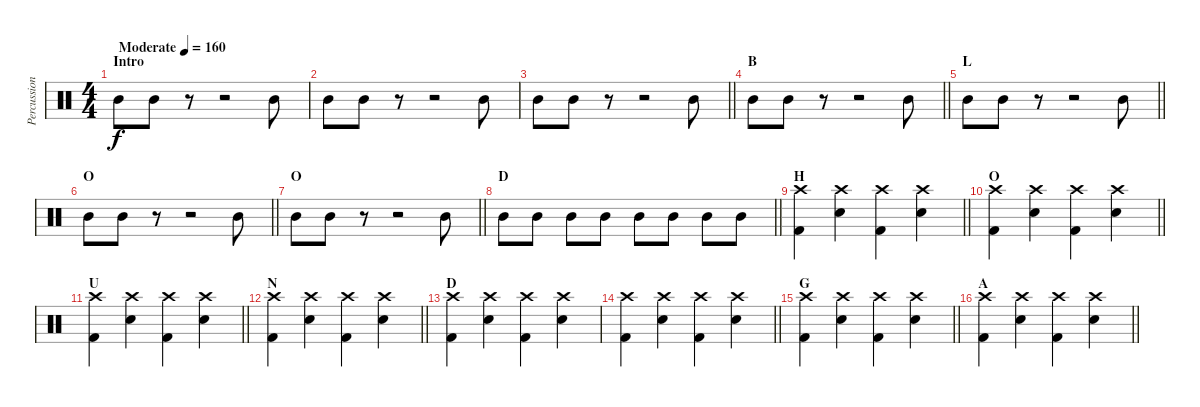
\track ("Percussion" "Percussion") {instrument percussion}
\staff {score}
\articulation defaults
\ts (4 4)
\section ("" "Intro")
\tempo (160 "Moderate")
\clef neutral
\ks c "Mid Tom (hit)".8{dy f} "Mid Tom (hit)".8
r.8 r.2 "Mid Tom (hit)".8 |
"Mid Tom (hit)".8 "Mid Tom (hit)".8 r.8 r.2 "Mid Tom (hit)".8 |
\barLineRight lightlight "Mid Tom (hit)".8 "Mid Tom (hit)".8
r.8 r.2 "Mid Tom (hit)".8 |
\section ("" "B")
\barLineRight lightlight "Mid Tom (hit)".8 "Mid Tom (hit)".8
r.8 r.2 "Mid Tom (hit)".8 |
\section ("" "L")
\barLineRight lightlight "Mid Tom (hit)".8 "Mid Tom (hit)".8
r.8 r.2 "Mid Tom (hit)".8 |
\section ("" "O")
\barLineRight lightlight "Mid Tom (hit)".8 "Mid Tom (hit)".8
r.8 r.2 "Mid Tom (hit)".8 |
\section ("" "O")
\barLineRight lightlight "Mid Tom (hit)".8 "Mid Tom (hit)".8
r.8 r.2 "Mid Tom (hit)".8 |
\section ("" "D")
\barLineRight lightlight "Mid Tom (hit)".8 "Mid Tom (hit)".8 "Mid Tom (hit)".8 "Mid Tom (hit)".8 "Mid Tom (hit)".8 "Mid Tom (hit)".8 "Mid Tom (hit)".8 "Mid Tom (hit)".8
|
\section ("" "H")
\barLineRight lightlight
("Crash high (hit)" "Kick (hit) 2").4 ("Crash high (hit)" "Snare (hit) 2").4 ("Crash high (hit)" "Kick (hit) 2").4 ("Crash high (hit)" "Snare (hit) 2").4 |
\section ("" "O")
\barLineRight lightlight
("Crash high (hit)" "Kick (hit) 2").4 ("Crash high (hit)" "Snare (hit) 2").4 ("Crash high (hit)" "Kick (hit) 2").4 ("Crash high (hit)" "Snare (hit) 2").4 |
\section ("" "U")
\barLineRight lightlight
("Crash high (hit)" "Kick (hit) 2").4 ("Crash high (hit)" "Snare (hit) 2").4 ("Crash high (hit)" "Kick (hit) 2").4 ("Crash high (hit)" "Snare (hit) 2").4 |
\section ("" "N")
\barLineRight lightlight
("Crash high (hit)" "Kick (hit) 2").4 ("Crash high (hit)" "Snare (hit) 2").4 ("Crash high (hit)" "Kick (hit) 2").4 ("Crash high (hit)" "Snare (hit) 2").4 |
\section ("" "D")
("Crash high (hit)" "Kick (hit) 2").4 ("Crash high (hit)" "Snare (hit) 2").4 ("Crash high (hit)" "Kick (hit) 2").4 ("Crash high (hit)" "Snare (hit) 2").4 |
\barLineRight lightlight
("Crash high (hit)" "Kick (hit) 2").4 ("Crash high (hit)" "Snare (hit) 2").4 ("Crash high (hit)" "Kick (hit) 2").4 ("Crash high (hit)" "Snare (hit) 2").4 |
\section ("" "G")
\barLineRight lightlight
("Crash high (hit)" "Kick (hit) 2").4 ("Crash high (hit)" "Snare (hit) 2").4 ("Crash high (hit)" "Kick (hit) 2").4 ("Crash high (hit)" "Snare (hit) 2").4 |
\section ("" "A")
\barLineRight lightlight
("Crash high (hit)" "Kick (hit) 2").4 ("Crash high (hit)" "Snare (hit) 2").4 ("Crash high (hit)" "Kick (hit) 2").4 ("Crash high (hit)" "Snare (hit) 2").4
